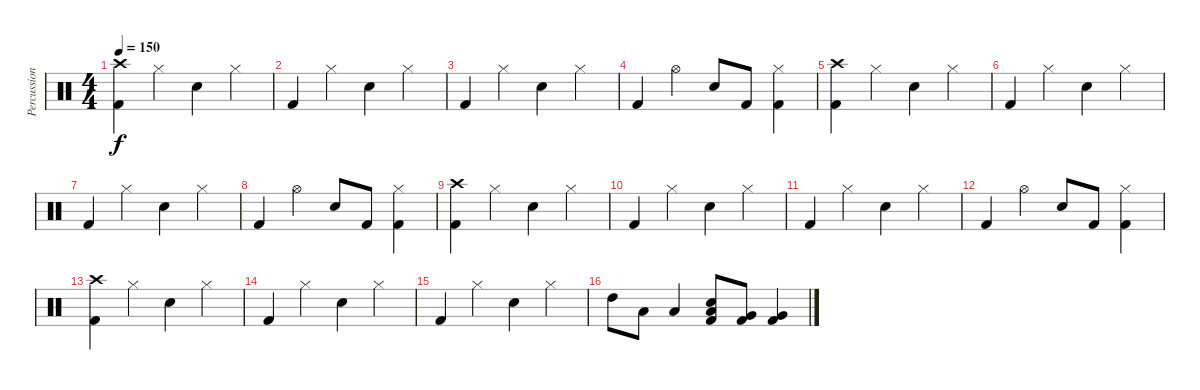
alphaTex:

\track ("Percussion" "Percussion") {instrument percussion}
\staff {score}
\articulation defaults
\ts (4 4)
\tempo 150
\clef neutral
\ks c
("Crash high (hit)" "Kick (hit) 2").4{dy f} "Hi-Hat (closed)".4 "Snare (hit) 2".4 "Hi-Hat (closed)".4 |
"Kick (hit) 2".4 "Hi-Hat (closed)".4 "Snare (hit) 2".4 "Hi-Hat (closed)".4 |
"Kick (hit) 2".4 "Hi-Hat (closed)".4 "Snare (hit) 2".4 "Hi-Hat (closed)".4 |
"Kick (hit) 2".4 "Hi-Hat (open)".4 "Snare (hit) 2".8 "Kick (hit) 2".8 ("Hi-Hat (closed)" "Kick (hit) 2").4 |
("Crash high (hit)" "Kick (hit) 2").4 "Hi-Hat (closed)".4 "Snare (hit) 2".4 "Hi-Hat (closed)".4 |
"Kick (hit) 2".4 "Hi-Hat (closed)".4 "Snare (hit) 2".4 "Hi-Hat (closed)".4 |
"Kick (hit) 2".4 "Hi-Hat (closed)".4 "Snare (hit) 2".4 "Hi-Hat (closed)".4 |
"Kick (hit) 2".4 "Hi-Hat (open)".4 "Snare (hit) 2".8 "Kick (hit) 2".8 ("Hi-Hat (closed)" "Kick (hit) 2").4 |
("Crash high (hit)" "Kick (hit) 2").4 "Hi-Hat (closed)".4 "Snare (hit) 2".4 "Hi-Hat (closed)".4 |
"Kick (hit) 2".4 "Hi-Hat (closed)".4 "Snare (hit) 2".4 "Hi-Hat (closed)".4 |
"Kick (hit) 2".4 "Hi-Hat (closed)".4 "Snare (hit) 2".4 "Hi-Hat (closed)".4 |
"Kick (hit) 2".4 "Hi-Hat (open)".4 "Snare (hit) 2".8 "Kick (hit) 2".8 ("Hi-Hat (closed)" "Kick (hit) 2").4 |
("Crash high (hit)" "Kick (hit) 2").4 "Hi-Hat (closed)".4 "Snare (hit) 2".4 "Hi-Hat (closed)".4 |
"Kick (hit) 2".4 "Hi-Hat (closed)".4 "Snare (hit) 2".4 "Hi-Hat (closed)".4 |
"Kick (hit) 2".4 "Hi-Hat (closed)".4 "Snare (hit) 2".4 "Hi-Hat (closed)".4 |
"High Tom (hit)".8 "Low Tom (hit)".8 "Low Tom (hit)".4 ("Snare (hit) 2" "Low Tom (hit)" "Kick (hit) 2").8 ("Very Low Tom (hit)" "Kick (hit) 2").8 ("Very Low Tom (hit)" "Kick (hit) 2").4
